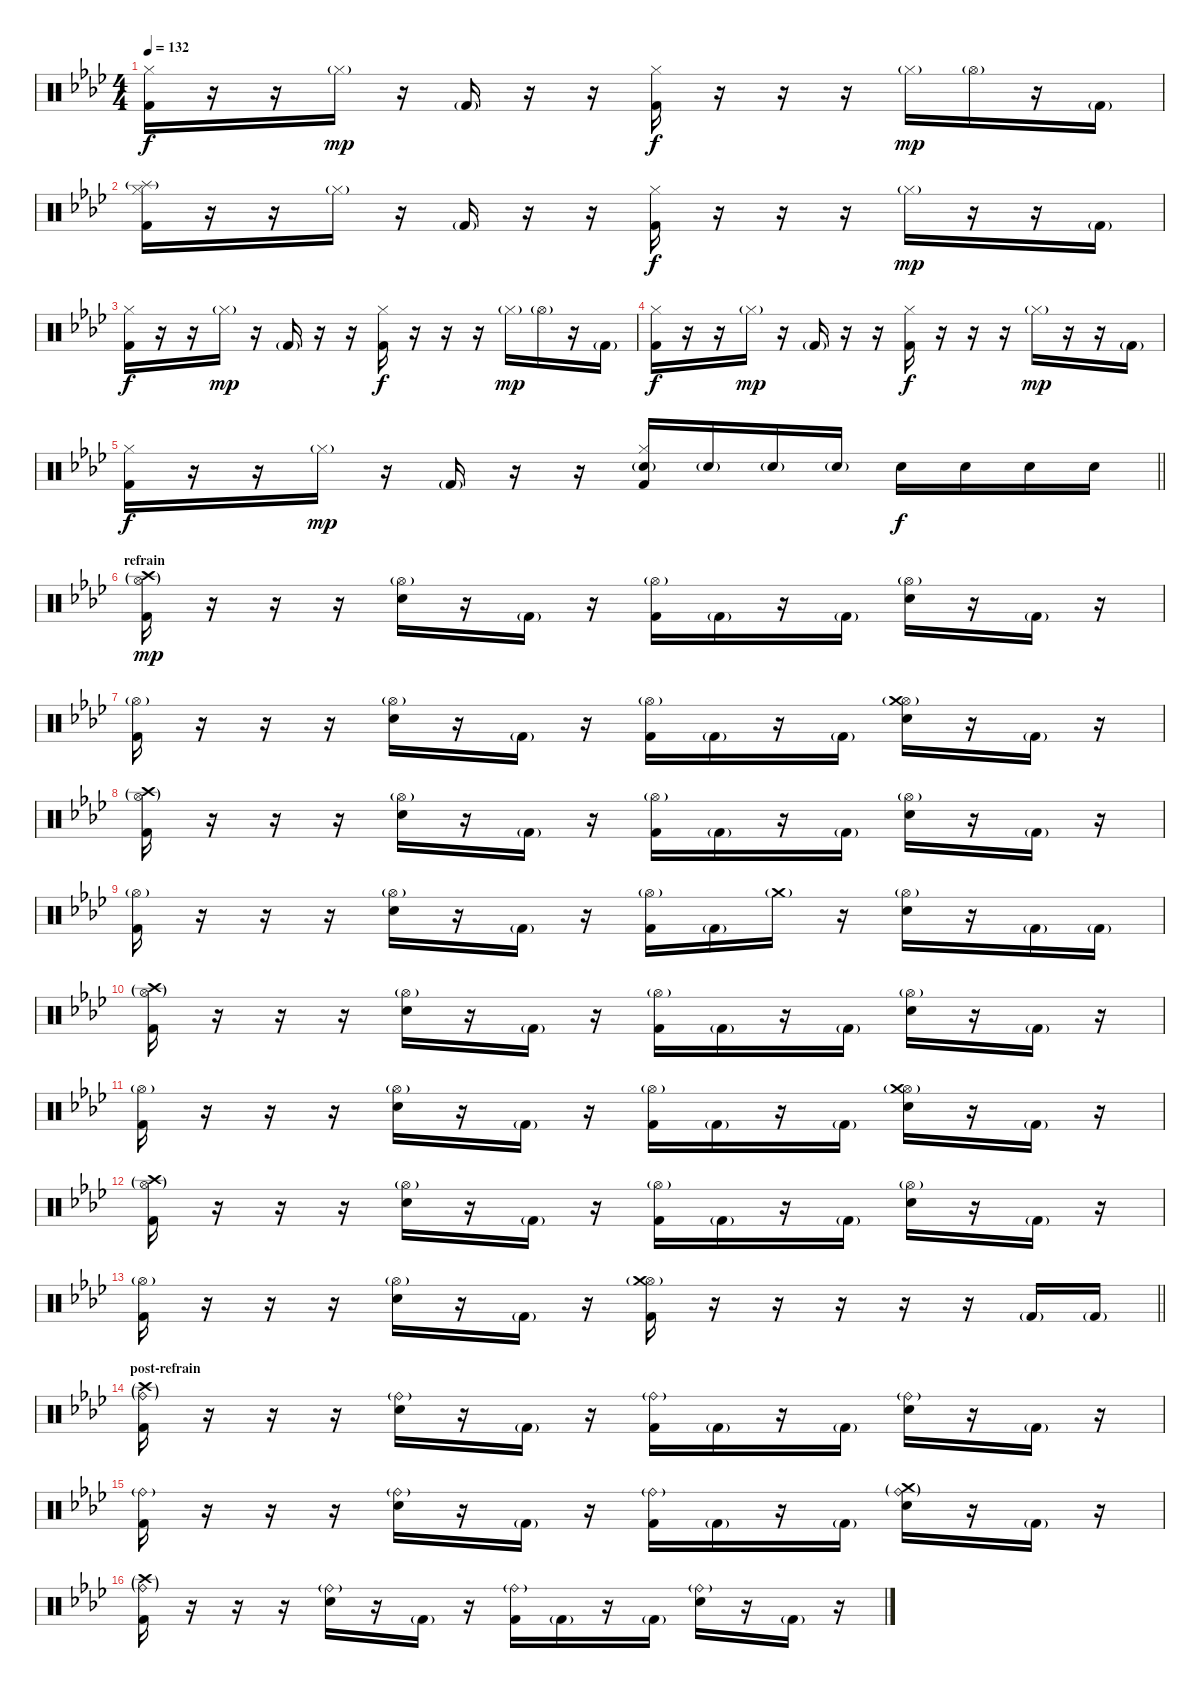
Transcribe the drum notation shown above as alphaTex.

\track "" {instrument percussion}
\staff {score}
\articulation defaults
\ts (4 4)
\tempo 132
\clef neutral
\ks fminor
("Kick (hit) 2" "Hi-Hat (closed)").16{dy f} r.16 r.16 "Hi-Hat (closed)"{g}.16{dy mp} r.16 "Kick (hit) 2"{g}.16 r.16 r.16 ("Kick (hit) 2" "Hi-Hat (closed)").16{dy f} r.16 r.16 r.16 "Hi-Hat (closed)"{g}.16{dy mp} "Hi-Hat (open)"{g}.16 r.16 "Kick (hit) 2"{g}.16 |
("Kick (hit) 2" "Hi-Hat (closed)" "Splash (hit)"{g}).16 r.16 r.16 "Hi-Hat (closed)"{g}.16 r.16 "Kick (hit) 2"{g}.16 r.16 r.16 ("Kick (hit) 2" "Hi-Hat (closed)").16{dy f} r.16 r.16 r.16 "Hi-Hat (closed)"{g}.16{dy mp} r.16 r.16 "Kick (hit) 2"{g}.16 |
("Kick (hit) 2" "Hi-Hat (closed)").16{dy f} r.16 r.16 "Hi-Hat (closed)"{g}.16{dy mp} r.16 "Kick (hit) 2"{g}.16 r.16 r.16 ("Kick (hit) 2" "Hi-Hat (closed)").16{dy f} r.16 r.16 r.16 "Hi-Hat (closed)"{g}.16{dy mp} "Hi-Hat (open)"{g}.16 r.16 "Kick (hit) 2"{g}.16 |
("Kick (hit) 2" "Hi-Hat (closed)").16{dy f} r.16 r.16 "Hi-Hat (closed)"{g}.16{dy mp} r.16 "Kick (hit) 2"{g}.16 r.16 r.16 ("Kick (hit) 2" "Hi-Hat (closed)").16{dy f} r.16 r.16 r.16 "Hi-Hat (closed)"{g}.16{dy mp} r.16 r.16 "Kick (hit) 2"{g}.16 |
\barLineRight lightlight
("Kick (hit) 2" "Hi-Hat (closed)").16{dy f} r.16 r.16 "Hi-Hat (closed)"{g}.16{dy mp} r.16 "Kick (hit) 2"{g}.16 r.16 r.16 ("Kick (hit) 2" "Hi-Hat (closed)" "Electric Snare (hit)"{g}).16 "Electric Snare (hit)"{g}.16 "Electric Snare (hit)"{g}.16 "Electric Snare (hit)"{g}.16 "Electric Snare (hit)".16{dy f} "Electric Snare (hit)".16 "Electric Snare (hit)".16 "Electric Snare (hit)".16 |
\section ("" "refrain")
("Kick (hit) 2" "Hi-Hat (open)"{g} "Crash high (hit)"{g}).16{dy mp} r.16 r.16 r.16 ("Electric Snare (hit)" "Hi-Hat (open)"{g}).16 r.16 "Kick (hit) 2"{g}.16 r.16 ("Kick (hit) 2" "Hi-Hat (open)"{g}).16 "Kick (hit) 2"{g}.16 r.16 "Kick (hit) 2"{g}.16 ("Electric Snare (hit)" "Hi-Hat (open)"{g}).16 r.16 "Kick (hit) 2"{g}.16 r.16 |
("Kick (hit) 2" "Hi-Hat (open)"{g}).16 r.16 r.16 r.16 ("Electric Snare (hit)" "Hi-Hat (open)"{g}).16 r.16 "Kick (hit) 2"{g}.16 r.16 ("Kick (hit) 2" "Hi-Hat (open)"{g}).16 "Kick (hit) 2"{g}.16 r.16 "Kick (hit) 2"{g}.16 ("Electric Snare (hit)" "Hi-Hat (open)"{g} "Crash medium (hit)"{g}).16 r.16 "Kick (hit) 2"{g}.16 r.16 |
("Kick (hit) 2" "Hi-Hat (open)"{g} "Crash high (hit)"{g}).16 r.16 r.16 r.16 ("Electric Snare (hit)" "Hi-Hat (open)"{g}).16 r.16 "Kick (hit) 2"{g}.16 r.16 ("Kick (hit) 2" "Hi-Hat (open)"{g}).16 "Kick (hit) 2"{g}.16 r.16 "Kick (hit) 2"{g}.16 ("Electric Snare (hit)" "Hi-Hat (open)"{g}).16 r.16 "Kick (hit) 2"{g}.16 r.16 |
("Kick (hit) 2" "Hi-Hat (open)"{g}).16 r.16 r.16 r.16 ("Electric Snare (hit)" "Hi-Hat (open)"{g}).16 r.16 "Kick (hit) 2"{g}.16 r.16 ("Kick (hit) 2" "Hi-Hat (open)"{g}).16 "Kick (hit) 2"{g}.16 "Crash medium (hit)"{g}.16 r.16 ("Electric Snare (hit)" "Hi-Hat (open)"{g}).16 r.16 "Kick (hit) 2"{g}.16 "Kick (hit) 2"{g}.16 |
("Kick (hit) 2" "Hi-Hat (open)"{g} "Crash high (hit)"{g}).16 r.16 r.16 r.16 ("Electric Snare (hit)" "Hi-Hat (open)"{g}).16 r.16 "Kick (hit) 2"{g}.16 r.16 ("Kick (hit) 2" "Hi-Hat (open)"{g}).16 "Kick (hit) 2"{g}.16 r.16 "Kick (hit) 2"{g}.16 ("Electric Snare (hit)" "Hi-Hat (open)"{g}).16 r.16 "Kick (hit) 2"{g}.16 r.16 |
("Kick (hit) 2" "Hi-Hat (open)"{g}).16 r.16 r.16 r.16 ("Electric Snare (hit)" "Hi-Hat (open)"{g}).16 r.16 "Kick (hit) 2"{g}.16 r.16 ("Kick (hit) 2" "Hi-Hat (open)"{g}).16 "Kick (hit) 2"{g}.16 r.16 "Kick (hit) 2"{g}.16 ("Electric Snare (hit)" "Hi-Hat (open)"{g} "Crash medium (hit)"{g}).16 r.16 "Kick (hit) 2"{g}.16 r.16 |
("Kick (hit) 2" "Hi-Hat (open)"{g} "Crash high (hit)"{g}).16 r.16 r.16 r.16 ("Electric Snare (hit)" "Hi-Hat (open)"{g}).16 r.16 "Kick (hit) 2"{g}.16 r.16 ("Kick (hit) 2" "Hi-Hat (open)"{g}).16 "Kick (hit) 2"{g}.16 r.16 "Kick (hit) 2"{g}.16 ("Electric Snare (hit)" "Hi-Hat (open)"{g}).16 r.16 "Kick (hit) 2"{g}.16 r.16 |
\barLineRight lightlight
("Kick (hit) 2" "Hi-Hat (open)"{g}).16 r.16 r.16 r.16 ("Electric Snare (hit)" "Hi-Hat (open)"{g}).16 r.16 "Kick (hit) 2"{g}.16 r.16 ("Kick (hit) 2" "Hi-Hat (open)"{g} "Crash medium (hit)"{g}).16 r.16 r.16 r.16 r.16 r.16 "Kick (hit) 2"{g}.16 "Kick (hit) 2"{g}.16 |
\section ("" "post-refrain")
("Kick (hit) 2" "Ride (bell)"{g} "Crash high (hit)"{g}).16 r.16 r.16 r.16 ("Electric Snare (hit)" "Ride (bell)"{g}).16 r.16 "Kick (hit) 2"{g}.16 r.16 ("Kick (hit) 2" "Ride (bell)"{g}).16 "Kick (hit) 2"{g}.16 r.16 "Kick (hit) 2"{g}.16 ("Electric Snare (hit)" "Ride (bell)"{g}).16 r.16 "Kick (hit) 2"{g}.16 r.16 |
("Kick (hit) 2" "Ride (bell)"{g}).16 r.16 r.16 r.16 ("Electric Snare (hit)" "Ride (bell)"{g}).16 r.16 "Kick (hit) 2"{g}.16 r.16 ("Kick (hit) 2" "Ride (bell)"{g}).16 "Kick (hit) 2"{g}.16 r.16 "Kick (hit) 2"{g}.16 ("Electric Snare (hit)" "Ride (bell)"{g} "Crash medium (hit)"{g}).16 r.16 "Kick (hit) 2"{g}.16 r.16 |
("Kick (hit) 2" "Ride (bell)"{g} "Crash high (hit)"{g}).16 r.16 r.16 r.16 ("Electric Snare (hit)" "Ride (bell)"{g}).16 r.16 "Kick (hit) 2"{g}.16 r.16 ("Kick (hit) 2" "Ride (bell)"{g}).16 "Kick (hit) 2"{g}.16 r.16 "Kick (hit) 2"{g}.16 ("Electric Snare (hit)" "Ride (bell)"{g}).16 r.16 "Kick (hit) 2"{g}.16 r.16
